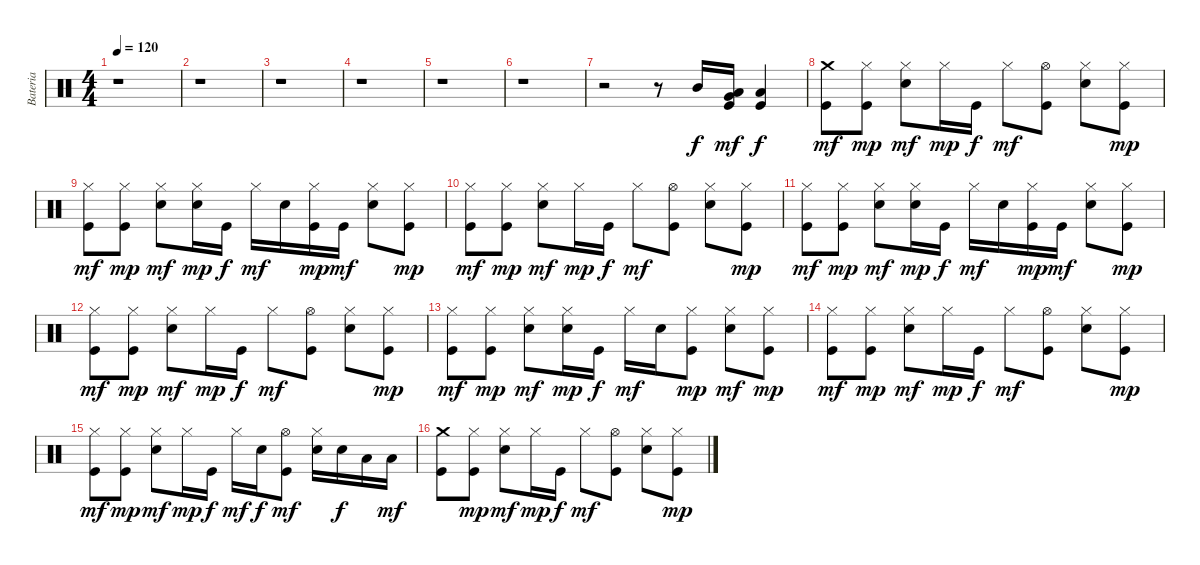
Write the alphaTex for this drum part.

\track ("Bateria" "Bateria") {instrument percussion}
\staff {score}
\articulation defaults
\ts (4 4)
\tempo 120
\clef neutral
\ks c
r.1{dy mf} |
r.1 |
r.1 |
r.1 |
r.1 |
r.1 |
r.2 r.8 "Mid Tom (hit)".16{dy f} ("Low Tom (hit)" "Kick (hit)" "Very Low Tom (hit)").16{dy mf} ("Kick (hit)" "Low Floor Tom (hit)").4{dy f} |
("Kick (hit)" "Crash medium (hit)").8{dy mf} ("Kick (hit)" "Hi-Hat (closed)").8{dy mp} ("Snare (hit) 2" "Hi-Hat (closed)").8{dy mf} "Hi-Hat (closed)".16{dy mp} "Kick (hit)".16{dy f} "Hi-Hat (closed)".8{dy mf} ("Kick (hit)" "Hi-Hat (open)").8 ("Snare (hit) 2" "Hi-Hat (closed)").8 ("Kick (hit)" "Hi-Hat (closed)").8{dy mp} |
("Kick (hit)" "Hi-Hat (closed)").8{dy mf} ("Kick (hit)" "Hi-Hat (closed)").8{dy mp} ("Snare (hit) 2" "Hi-Hat (closed)").8{dy mf} ("Snare (hit) 2" "Hi-Hat (closed)").16{dy mp} "Kick (hit)".16{dy f} "Hi-Hat (closed)".16{dy mf} "Snare (hit) 2".16 ("Kick (hit)" "Hi-Hat (closed)").16{dy mp} "Kick (hit)".16{dy mf} ("Snare (hit) 2" "Hi-Hat (closed)").8 ("Kick (hit)" "Hi-Hat (closed)").8{dy mp} |
("Kick (hit)" "Hi-Hat (closed)").8{dy mf} ("Kick (hit)" "Hi-Hat (closed)").8{dy mp} ("Snare (hit) 2" "Hi-Hat (closed)").8{dy mf} "Hi-Hat (closed)".16{dy mp} "Kick (hit)".16{dy f} "Hi-Hat (closed)".8{dy mf} ("Kick (hit)" "Hi-Hat (open)").8 ("Snare (hit) 2" "Hi-Hat (closed)").8 ("Kick (hit)" "Hi-Hat (closed)").8{dy mp} |
("Kick (hit)" "Hi-Hat (closed)").8{dy mf} ("Kick (hit)" "Hi-Hat (closed)").8{dy mp} ("Snare (hit) 2" "Hi-Hat (closed)").8{dy mf} ("Snare (hit) 2" "Hi-Hat (closed)").16{dy mp} "Kick (hit)".16{dy f} "Hi-Hat (closed)".16{dy mf} "Snare (hit) 2".16 ("Kick (hit)" "Hi-Hat (closed)").16{dy mp} "Kick (hit)".16{dy mf} ("Snare (hit) 2" "Hi-Hat (closed)").8 ("Kick (hit)" "Hi-Hat (closed)").8{dy mp} |
("Kick (hit)" "Hi-Hat (closed)").8{dy mf} ("Kick (hit)" "Hi-Hat (closed)").8{dy mp} ("Snare (hit) 2" "Hi-Hat (closed)").8{dy mf} "Hi-Hat (closed)".16{dy mp} "Kick (hit)".16{dy f} "Hi-Hat (closed)".8{dy mf} ("Kick (hit)" "Hi-Hat (open)").8 ("Snare (hit) 2" "Hi-Hat (closed)").8 ("Kick (hit)" "Hi-Hat (closed)").8{dy mp} |
("Kick (hit)" "Hi-Hat (closed)").8{dy mf} ("Kick (hit)" "Hi-Hat (closed)").8{dy mp} ("Snare (hit) 2" "Hi-Hat (closed)").8{dy mf} ("Snare (hit) 2" "Hi-Hat (closed)").16{dy mp} "Kick (hit)".16{dy f} "Hi-Hat (closed)".16{dy mf} "Snare (hit) 2".16 ("Kick (hit)" "Hi-Hat (closed)").8{dy mp} ("Snare (hit) 2" "Hi-Hat (closed)").8{dy mf} ("Kick (hit)" "Hi-Hat (closed)").8{dy mp} |
("Kick (hit)" "Hi-Hat (closed)").8{dy mf} ("Kick (hit)" "Hi-Hat (closed)").8{dy mp} ("Snare (hit) 2" "Hi-Hat (closed)").8{dy mf} "Hi-Hat (closed)".16{dy mp} "Kick (hit)".16{dy f} "Hi-Hat (closed)".8{dy mf} ("Kick (hit)" "Hi-Hat (open)").8 ("Snare (hit) 2" "Hi-Hat (closed)").8 ("Kick (hit)" "Hi-Hat (closed)").8{dy mp} |
("Kick (hit)" "Hi-Hat (closed)").8{dy mf} ("Kick (hit)" "Hi-Hat (closed)").8{dy mp} ("Snare (hit) 2" "Hi-Hat (closed)").8{dy mf} "Hi-Hat (closed)".16{dy mp} "Kick (hit)".16{dy f} "Hi-Hat (closed)".16{dy mf} "Snare (hit) 2".16{dy f} ("Kick (hit)" "Hi-Hat (open)").8{dy mf} ("Snare (hit) 2" "Hi-Hat (closed)").16 "Snare (hit) 2".16{dy f} "Low Tom (hit)".16 "Low Floor Tom (hit)".16{dy mf} |
("Kick (hit)" "Crash medium (hit)").8 ("Kick (hit)" "Hi-Hat (closed)").8{dy mp} ("Snare (hit) 2" "Hi-Hat (closed)").8{dy mf} "Hi-Hat (closed)".16{dy mp} "Kick (hit)".16{dy f} "Hi-Hat (closed)".8{dy mf} ("Kick (hit)" "Hi-Hat (open)").8 ("Snare (hit) 2" "Hi-Hat (closed)").8 ("Kick (hit)" "Hi-Hat (closed)").8{dy mp}
